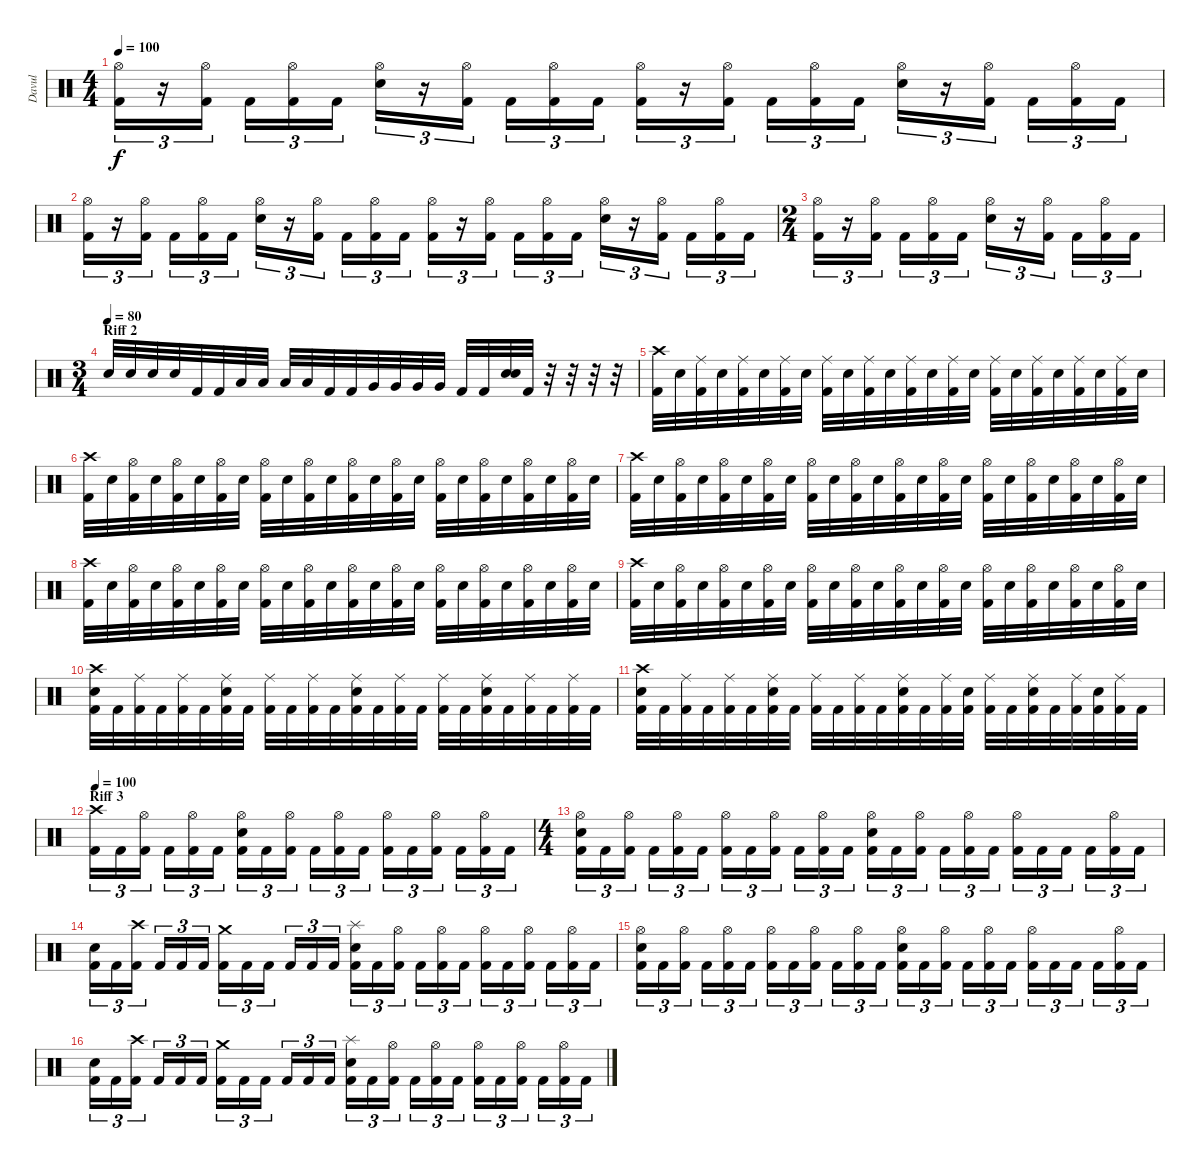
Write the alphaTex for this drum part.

\track ("Davul" "Davul") {instrument percussion}
\staff {score}
\articulation defaults
\ts (4 4)
\tempo 100
\clef neutral
\ks c
("Hi-Hat (open)" "Kick (hit) 2").16{tu (3 2) dy f} r.16{tu (3 2)} ("Hi-Hat (open)" "Kick (hit) 2").16{tu (3 2)} "Kick (hit) 2".16{tu (3 2)} ("Hi-Hat (open)" "Kick (hit) 2").16{tu (3 2)} "Kick (hit) 2".16{tu (3 2)} ("Hi-Hat (open)" "Electric Snare (hit)").16{tu (3 2)} r.16{tu (3 2)} ("Hi-Hat (open)" "Kick (hit) 2").16{tu (3 2)} "Kick (hit) 2".16{tu (3 2)} ("Hi-Hat (open)" "Kick (hit) 2").16{tu (3 2)} "Kick (hit) 2".16{tu (3 2)} ("Hi-Hat (open)" "Kick (hit) 2").16{tu (3 2)} r.16{tu (3 2)} ("Hi-Hat (open)" "Kick (hit) 2").16{tu (3 2)} "Kick (hit) 2".16{tu (3 2)} ("Hi-Hat (open)" "Kick (hit) 2").16{tu (3 2)} "Kick (hit) 2".16{tu (3 2)} ("Hi-Hat (open)" "Electric Snare (hit)").16{tu (3 2)} r.16{tu (3 2)} ("Hi-Hat (open)" "Kick (hit) 2").16{tu (3 2)} "Kick (hit) 2".16{tu (3 2)} ("Hi-Hat (open)" "Kick (hit) 2").16{tu (3 2)} "Kick (hit) 2".16{tu (3 2)} |
("Hi-Hat (open)" "Kick (hit) 2").16{tu (3 2)} r.16{tu (3 2)} ("Hi-Hat (open)" "Kick (hit) 2").16{tu (3 2)} "Kick (hit) 2".16{tu (3 2)} ("Hi-Hat (open)" "Kick (hit) 2").16{tu (3 2)} "Kick (hit) 2".16{tu (3 2)} ("Hi-Hat (open)" "Electric Snare (hit)").16{tu (3 2)} r.16{tu (3 2)} ("Hi-Hat (open)" "Kick (hit) 2").16{tu (3 2)} "Kick (hit) 2".16{tu (3 2)} ("Hi-Hat (open)" "Kick (hit) 2").16{tu (3 2)} "Kick (hit) 2".16{tu (3 2)} ("Hi-Hat (open)" "Kick (hit) 2").16{tu (3 2)} r.16{tu (3 2)} ("Hi-Hat (open)" "Kick (hit) 2").16{tu (3 2)} "Kick (hit) 2".16{tu (3 2)} ("Hi-Hat (open)" "Kick (hit) 2").16{tu (3 2)} "Kick (hit) 2".16{tu (3 2)} ("Hi-Hat (open)" "Electric Snare (hit)").16{tu (3 2)} r.16{tu (3 2)} ("Hi-Hat (open)" "Kick (hit) 2").16{tu (3 2)} "Kick (hit) 2".16{tu (3 2)} ("Hi-Hat (open)" "Kick (hit) 2").16{tu (3 2)} "Kick (hit) 2".16{tu (3 2)} |
\ts (2 4)
("Hi-Hat (open)" "Kick (hit) 2").16{tu (3 2)} r.16{tu (3 2)} ("Hi-Hat (open)" "Kick (hit) 2").16{tu (3 2)} "Kick (hit) 2".16{tu (3 2)} ("Hi-Hat (open)" "Kick (hit) 2").16{tu (3 2)} "Kick (hit) 2".16{tu (3 2)} ("Hi-Hat (open)" "Electric Snare (hit)").16{tu (3 2)} r.16{tu (3 2)} ("Hi-Hat (open)" "Kick (hit) 2").16{tu (3 2)} "Kick (hit) 2".16{tu (3 2)} ("Hi-Hat (open)" "Kick (hit) 2").16{tu (3 2)} "Kick (hit) 2".16{tu (3 2)} |
\ts (3 4)
\section ("" "Riff 2")
\tempo (80)
"Electric Snare (hit)".32 "Electric Snare (hit)".32 "Electric Snare (hit)".32 "Electric Snare (hit)".32 "Kick (hit) 2".32 "Kick (hit) 2".32 "Low Tom (hit)".32 "Low Tom (hit)".32 "Low Tom (hit)".32 "Low Tom (hit)".32 "Kick (hit) 2".32 "Kick (hit) 2".32 "Very Low Tom (hit)".32 "Very Low Tom (hit)".32 "Very Low Tom (hit)".32 "Very Low Tom (hit)".32 "Kick (hit) 2".32 "Kick (hit) 2".32 ("Electric Snare (hit)" "Electric Snare (hit)").32 "Kick (hit) 2".32 r.32 r.32 r.32 r.32 |
("Crash high (hit)" "Kick (hit) 2").32 "Electric Snare (hit)".32 ("Ride (middle)" "Kick (hit) 2").32 "Electric Snare (hit)".32 ("Ride (middle)" "Kick (hit) 2").32 "Electric Snare (hit)".32 ("Ride (middle)" "Kick (hit) 2").32 "Electric Snare (hit)".32 ("Ride (middle)" "Kick (hit) 2").32 "Electric Snare (hit)".32 ("Ride (middle)" "Kick (hit) 2").32 "Electric Snare (hit)".32 ("Ride (middle)" "Kick (hit) 2").32 "Electric Snare (hit)".32 ("Ride (middle)" "Kick (hit) 2").32 "Electric Snare (hit)".32 ("Ride (middle)" "Kick (hit) 2").32 "Electric Snare (hit)".32 ("Ride (middle)" "Kick (hit) 2").32 "Electric Snare (hit)".32 ("Ride (middle)" "Kick (hit) 2").32 "Electric Snare (hit)".32 ("Ride (middle)" "Kick (hit) 2").32 "Electric Snare (hit)".32 |
("Crash high (hit)" "Kick (hit) 2").32 "Electric Snare (hit)".32 ("Hi-Hat (open)" "Kick (hit) 2").32 "Electric Snare (hit)".32 ("Hi-Hat (open)" "Kick (hit) 2").32 "Electric Snare (hit)".32 ("Hi-Hat (open)" "Kick (hit) 2").32 "Electric Snare (hit)".32 ("Hi-Hat (open)" "Kick (hit) 2").32 "Electric Snare (hit)".32 ("Hi-Hat (open)" "Kick (hit) 2").32 "Electric Snare (hit)".32 ("Hi-Hat (open)" "Kick (hit) 2").32 "Electric Snare (hit)".32 ("Hi-Hat (open)" "Kick (hit) 2").32 "Electric Snare (hit)".32 ("Hi-Hat (open)" "Kick (hit) 2").32 "Electric Snare (hit)".32 ("Hi-Hat (open)" "Kick (hit) 2").32 "Electric Snare (hit)".32 ("Hi-Hat (open)" "Kick (hit) 2").32 "Electric Snare (hit)".32 ("Hi-Hat (open)" "Kick (hit) 2").32 "Electric Snare (hit)".32 |
("Crash high (hit)" "Kick (hit) 2").32 "Electric Snare (hit)".32 ("Hi-Hat (open)" "Kick (hit) 2").32 "Electric Snare (hit)".32 ("Hi-Hat (open)" "Kick (hit) 2").32 "Electric Snare (hit)".32 ("Hi-Hat (open)" "Kick (hit) 2").32 "Electric Snare (hit)".32 ("Hi-Hat (open)" "Kick (hit) 2").32 "Electric Snare (hit)".32 ("Hi-Hat (open)" "Kick (hit) 2").32 "Electric Snare (hit)".32 ("Hi-Hat (open)" "Kick (hit) 2").32 "Electric Snare (hit)".32 ("Hi-Hat (open)" "Kick (hit) 2").32 "Electric Snare (hit)".32 ("Hi-Hat (open)" "Kick (hit) 2").32 "Electric Snare (hit)".32 ("Hi-Hat (open)" "Kick (hit) 2").32 "Electric Snare (hit)".32 ("Hi-Hat (open)" "Kick (hit) 2").32 "Electric Snare (hit)".32 ("Hi-Hat (open)" "Kick (hit) 2").32 "Electric Snare (hit)".32 |
("Crash high (hit)" "Kick (hit) 2").32 "Electric Snare (hit)".32 ("Hi-Hat (open)" "Kick (hit) 2").32 "Electric Snare (hit)".32 ("Hi-Hat (open)" "Kick (hit) 2").32 "Electric Snare (hit)".32 ("Hi-Hat (open)" "Kick (hit) 2").32 "Electric Snare (hit)".32 ("Hi-Hat (open)" "Kick (hit) 2").32 "Electric Snare (hit)".32 ("Hi-Hat (open)" "Kick (hit) 2").32 "Electric Snare (hit)".32 ("Hi-Hat (open)" "Kick (hit) 2").32 "Electric Snare (hit)".32 ("Hi-Hat (open)" "Kick (hit) 2").32 "Electric Snare (hit)".32 ("Hi-Hat (open)" "Kick (hit) 2").32 "Electric Snare (hit)".32 ("Hi-Hat (open)" "Kick (hit) 2").32 "Electric Snare (hit)".32 ("Hi-Hat (open)" "Kick (hit) 2").32 "Electric Snare (hit)".32 ("Hi-Hat (open)" "Kick (hit) 2").32 "Electric Snare (hit)".32 |
("Crash high (hit)" "Kick (hit) 2").32 "Electric Snare (hit)".32 ("Hi-Hat (open)" "Kick (hit) 2").32 "Electric Snare (hit)".32 ("Hi-Hat (open)" "Kick (hit) 2").32 "Electric Snare (hit)".32 ("Hi-Hat (open)" "Kick (hit) 2").32 "Electric Snare (hit)".32 ("Hi-Hat (open)" "Kick (hit) 2").32 "Electric Snare (hit)".32 ("Hi-Hat (open)" "Kick (hit) 2").32 "Electric Snare (hit)".32 ("Hi-Hat (open)" "Kick (hit) 2").32 "Electric Snare (hit)".32 ("Hi-Hat (open)" "Kick (hit) 2").32 "Electric Snare (hit)".32 ("Hi-Hat (open)" "Kick (hit) 2").32 "Electric Snare (hit)".32 ("Hi-Hat (open)" "Kick (hit) 2").32 "Electric Snare (hit)".32 ("Hi-Hat (open)" "Kick (hit) 2").32 "Electric Snare (hit)".32 ("Hi-Hat (open)" "Kick (hit) 2").32 "Electric Snare (hit)".32 |
("Crash high (hit)" "Electric Snare (hit)" "Kick (hit) 2").32 "Kick (hit) 2".32 ("Ride (middle)" "Kick (hit) 2").32 "Kick (hit) 2".32 ("Ride (middle)" "Kick (hit) 2").32 "Kick (hit) 2".32 ("Ride (middle)" "Electric Snare (hit)" "Kick (hit) 2").32 "Kick (hit) 2".32 ("Ride (middle)" "Kick (hit) 2").32 "Kick (hit) 2".32 ("Ride (middle)" "Kick (hit) 2").32 "Kick (hit) 2".32 ("Ride (middle)" "Electric Snare (hit)" "Kick (hit) 2").32 "Kick (hit) 2".32 ("Ride (middle)" "Kick (hit) 2").32 "Kick (hit) 2".32 ("Ride (middle)" "Kick (hit) 2").32 "Kick (hit) 2".32 ("Ride (middle)" "Electric Snare (hit)" "Kick (hit) 2").32 "Kick (hit) 2".32 ("Ride (middle)" "Kick (hit) 2").32 "Kick (hit) 2".32 ("Ride (middle)" "Kick (hit) 2").32 "Kick (hit) 2".32 |
("Crash high (hit)" "Electric Snare (hit)" "Kick (hit) 2").32 "Kick (hit) 2".32 ("Ride (middle)" "Kick (hit) 2").32 "Kick (hit) 2".32 ("Ride (middle)" "Kick (hit) 2").32 "Kick (hit) 2".32 ("Ride (middle)" "Electric Snare (hit)" "Kick (hit) 2").32 "Kick (hit) 2".32 ("Ride (middle)" "Kick (hit) 2").32 "Kick (hit) 2".32 ("Ride (middle)" "Kick (hit) 2").32 "Kick (hit) 2".32 ("Ride (middle)" "Electric Snare (hit)" "Kick (hit) 2").32 "Kick (hit) 2".32 ("Ride (middle)" "Kick (hit) 2").32 ("Electric Snare (hit)" "Kick (hit) 2").32 ("Ride (middle)" "Kick (hit) 2").32 "Kick (hit) 2".32 ("Ride (middle)" "Electric Snare (hit)" "Kick (hit) 2").32 "Kick (hit) 2".32 ("Ride (middle)" "Kick (hit) 2").32 ("Electric Snare (hit)" "Kick (hit) 2").32 ("Ride (middle)" "Kick (hit) 2").32 "Kick (hit) 2".32 |
\section ("" "Riff 3")
\tempo 100
("Crash high (hit)" "Kick (hit) 2").16{tu (3 2)} "Kick (hit) 2".16{tu (3 2)} ("Hi-Hat (open)" "Kick (hit) 2").16{tu (3 2)} "Kick (hit) 2".16{tu (3 2)} ("Hi-Hat (open)" "Kick (hit) 2").16{tu (3 2)} "Kick (hit) 2".16{tu (3 2)} ("Hi-Hat (open)" "Electric Snare (hit)" "Kick (hit) 2").16{tu (3 2)} "Kick (hit) 2".16{tu (3 2)} ("Hi-Hat (open)" "Kick (hit) 2").16{tu (3 2)} "Kick (hit) 2".16{tu (3 2)} ("Hi-Hat (open)" "Kick (hit) 2").16{tu (3 2)} "Kick (hit) 2".16{tu (3 2)} ("Hi-Hat (open)" "Kick (hit) 2").16{tu (3 2)} "Kick (hit) 2".16{tu (3 2)} ("Hi-Hat (open)" "Kick (hit) 2").16{tu (3 2)} "Kick (hit) 2".16{tu (3 2)} ("Hi-Hat (open)" "Kick (hit) 2").16{tu (3 2)} "Kick (hit) 2".16{tu (3 2)} |
\ts (4 4)
("Hi-Hat (open)" "Electric Snare (hit)" "Kick (hit) 2").16{tu (3 2)} "Kick (hit) 2".16{tu (3 2)} ("Hi-Hat (open)" "Kick (hit) 2").16{tu (3 2)} "Kick (hit) 2".16{tu (3 2)} ("Hi-Hat (open)" "Kick (hit) 2").16{tu (3 2)} "Kick (hit) 2".16{tu (3 2)} ("Hi-Hat (open)" "Kick (hit) 2").16{tu (3 2)} "Kick (hit) 2".16{tu (3 2)} ("Hi-Hat (open)" "Kick (hit) 2").16{tu (3 2)} "Kick (hit) 2".16{tu (3 2)} ("Hi-Hat (open)" "Kick (hit) 2").16{tu (3 2)} "Kick (hit) 2".16{tu (3 2)} ("Hi-Hat (open)" "Electric Snare (hit)" "Kick (hit) 2").16{tu (3 2)} "Kick (hit) 2".16{tu (3 2)} ("Hi-Hat (open)" "Kick (hit) 2").16{tu (3 2)} "Kick (hit) 2".16{tu (3 2)} ("Hi-Hat (open)" "Kick (hit) 2").16{tu (3 2)} "Kick (hit) 2".16{tu (3 2)} ("Hi-Hat (open)" "Kick (hit) 2").16{tu (3 2)} "Kick (hit) 2".16{tu (3 2)} "Kick (hit) 2".16{tu (3 2)} "Kick (hit) 2".16{tu (3 2)} ("Hi-Hat (open)" "Kick (hit) 2").16{tu (3 2)} "Kick (hit) 2".16{tu (3 2)} |
("Electric Snare (hit)" "Kick (hit) 2").16{tu (3 2)} "Kick (hit) 2".16{tu (3 2)} ("Crash high (hit)" "Kick (hit) 2").16{tu (3 2)} "Kick (hit) 2".16{tu (3 2)} "Kick (hit) 2".16{tu (3 2)} "Kick (hit) 2".16{tu (3 2)} ("Crash medium (hit)" "Kick (hit) 2").16{tu (3 2)} "Kick (hit) 2".16{tu (3 2)} "Kick (hit) 2".16{tu (3 2)} "Kick (hit) 2".16{tu (3 2)} "Kick (hit) 2".16{tu (3 2)} "Kick (hit) 2".16{tu (3 2)} ("Splash (hit)" "Electric Snare (hit)" "Kick (hit) 2").16{tu (3 2)} "Kick (hit) 2".16{tu (3 2)} ("Hi-Hat (open)" "Kick (hit) 2").16{tu (3 2)} "Kick (hit) 2".16{tu (3 2)} ("Hi-Hat (open)" "Kick (hit) 2").16{tu (3 2)} "Kick (hit) 2".16{tu (3 2)} ("Hi-Hat (open)" "Kick (hit) 2").16{tu (3 2)} "Kick (hit) 2".16{tu (3 2)} ("Hi-Hat (open)" "Kick (hit) 2").16{tu (3 2)} "Kick (hit) 2".16{tu (3 2)} ("Hi-Hat (open)" "Kick (hit) 2").16{tu (3 2)} "Kick (hit) 2".16{tu (3 2)} |
("Hi-Hat (open)" "Electric Snare (hit)" "Kick (hit) 2").16{tu (3 2)} "Kick (hit) 2".16{tu (3 2)} ("Hi-Hat (open)" "Kick (hit) 2").16{tu (3 2)} "Kick (hit) 2".16{tu (3 2)} ("Hi-Hat (open)" "Kick (hit) 2").16{tu (3 2)} "Kick (hit) 2".16{tu (3 2)} ("Hi-Hat (open)" "Kick (hit) 2").16{tu (3 2)} "Kick (hit) 2".16{tu (3 2)} ("Hi-Hat (open)" "Kick (hit) 2").16{tu (3 2)} "Kick (hit) 2".16{tu (3 2)} ("Hi-Hat (open)" "Kick (hit) 2").16{tu (3 2)} "Kick (hit) 2".16{tu (3 2)} ("Hi-Hat (open)" "Electric Snare (hit)" "Kick (hit) 2").16{tu (3 2)} "Kick (hit) 2".16{tu (3 2)} ("Hi-Hat (open)" "Kick (hit) 2").16{tu (3 2)} "Kick (hit) 2".16{tu (3 2)} ("Hi-Hat (open)" "Kick (hit) 2").16{tu (3 2)} "Kick (hit) 2".16{tu (3 2)} ("Hi-Hat (open)" "Kick (hit) 2").16{tu (3 2)} "Kick (hit) 2".16{tu (3 2)} "Kick (hit) 2".16{tu (3 2)} "Kick (hit) 2".16{tu (3 2)} ("Hi-Hat (open)" "Kick (hit) 2").16{tu (3 2)} "Kick (hit) 2".16{tu (3 2)} |
("Electric Snare (hit)" "Kick (hit) 2").16{tu (3 2)} "Kick (hit) 2".16{tu (3 2)} ("Crash high (hit)" "Kick (hit) 2").16{tu (3 2)} "Kick (hit) 2".16{tu (3 2)} "Kick (hit) 2".16{tu (3 2)} "Kick (hit) 2".16{tu (3 2)} ("Crash medium (hit)" "Kick (hit) 2").16{tu (3 2)} "Kick (hit) 2".16{tu (3 2)} "Kick (hit) 2".16{tu (3 2)} "Kick (hit) 2".16{tu (3 2)} "Kick (hit) 2".16{tu (3 2)} "Kick (hit) 2".16{tu (3 2)} ("Splash (hit)" "Electric Snare (hit)" "Kick (hit) 2").16{tu (3 2)} "Kick (hit) 2".16{tu (3 2)} ("Hi-Hat (open)" "Kick (hit) 2").16{tu (3 2)} "Kick (hit) 2".16{tu (3 2)} ("Hi-Hat (open)" "Kick (hit) 2").16{tu (3 2)} "Kick (hit) 2".16{tu (3 2)} ("Hi-Hat (open)" "Kick (hit) 2").16{tu (3 2)} "Kick (hit) 2".16{tu (3 2)} ("Hi-Hat (open)" "Kick (hit) 2").16{tu (3 2)} "Kick (hit) 2".16{tu (3 2)} ("Hi-Hat (open)" "Kick (hit) 2").16{tu (3 2)} "Kick (hit) 2".16{tu (3 2)}
